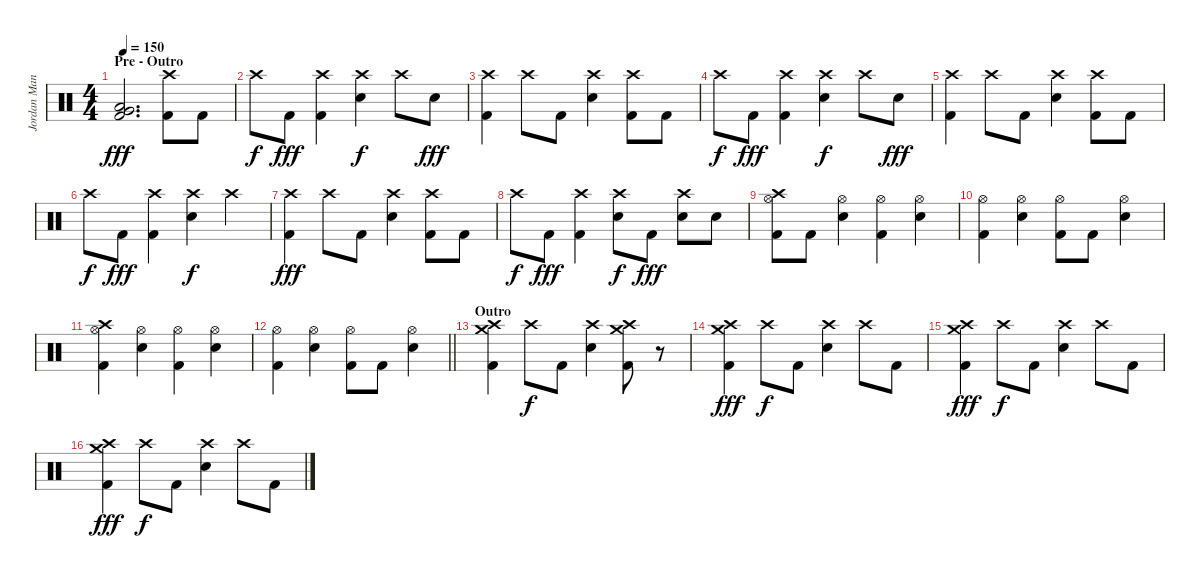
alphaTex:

\track ("Jordan Mancino" "Jordan Man") {instrument percussion}
\staff {score}
\articulation defaults
\ts (4 4)
\section ("" "Pre - Outro")
\tempo 150
\clef neutral
\ks c
("Very Low Tom (hit)" "Low Floor Tom (hit)" "Kick (hit) 2").2{d dy fff} ("Crash high (hit)" "Kick (hit) 2").8 "Kick (hit) 2".8 |
"Crash high (hit)".8{dy f} "Kick (hit) 2".8{dy fff} ("Crash high (hit)" "Kick (hit) 2").4 ("Crash high (hit)" "Electric Snare (hit)").4{dy f} "Crash high (hit)".8 "Electric Snare (hit)".8{dy fff} |
("Crash high (hit)" "Kick (hit) 2").4 "Crash high (hit)".8 "Kick (hit) 2".8 ("Crash high (hit)" "Electric Snare (hit)").4 ("Crash high (hit)" "Kick (hit) 2").8 "Kick (hit) 2".8 |
"Crash high (hit)".8{dy f} "Kick (hit) 2".8{dy fff} ("Crash high (hit)" "Kick (hit) 2").4 ("Crash high (hit)" "Electric Snare (hit)").4{dy f} "Crash high (hit)".8 "Electric Snare (hit)".8{dy fff} |
("Crash high (hit)" "Kick (hit) 2").4 "Crash high (hit)".8 "Kick (hit) 2".8 ("Crash high (hit)" "Electric Snare (hit)").4 ("Crash high (hit)" "Kick (hit) 2").8 "Kick (hit) 2".8 |
"Crash high (hit)".8{dy f} "Kick (hit) 2".8{dy fff} ("Crash high (hit)" "Kick (hit) 2").4 ("Crash high (hit)" "Electric Snare (hit)").4{dy f} "Crash high (hit)".4 |
("Crash high (hit)" "Kick (hit) 2").4{dy fff} "Crash high (hit)".8 "Kick (hit) 2".8 ("Crash high (hit)" "Electric Snare (hit)").4 ("Crash high (hit)" "Kick (hit) 2").8 "Kick (hit) 2".8 |
"Crash high (hit)".8{dy f} "Kick (hit) 2".8{dy fff} ("Crash high (hit)" "Kick (hit) 2").4 ("Crash high (hit)" "Electric Snare (hit)").8{dy f} "Kick (hit) 2".8{dy fff} ("Crash high (hit)" "Electric Snare (hit)").8 "Electric Snare (hit)".8 |
("Crash high (hit)" "Hi-Hat (open)" "Kick (hit) 2").8 "Kick (hit) 2".8 ("Hi-Hat (open)" "Electric Snare (hit)").4 ("Hi-Hat (open)" "Kick (hit) 2").4 ("Hi-Hat (open)" "Electric Snare (hit)").4 |
("Hi-Hat (open)" "Kick (hit) 2").4 ("Hi-Hat (open)" "Electric Snare (hit)").4 ("Hi-Hat (open)" "Kick (hit) 2").8 "Kick (hit) 2".8 ("Hi-Hat (open)" "Electric Snare (hit)").4 |
("Crash high (hit)" "Hi-Hat (open)" "Kick (hit) 2").4 ("Hi-Hat (open)" "Electric Snare (hit)").4 ("Hi-Hat (open)" "Kick (hit) 2").4 ("Hi-Hat (open)" "Electric Snare (hit)").4 |
\barLineRight lightlight
("Hi-Hat (open)" "Kick (hit) 2").4 ("Hi-Hat (open)" "Electric Snare (hit)").4 ("Hi-Hat (open)" "Kick (hit) 2").8 "Kick (hit) 2".8 ("Hi-Hat (open)" "Electric Snare (hit)").4 |
\section ("" "Outro")
("Crash high (hit)" "Crash medium (hit)" "Kick (hit) 2").4 "Crash high (hit)".8{dy f} "Kick (hit) 2".8 ("Crash high (hit)" "Electric Snare (hit)").4 ("Crash high (hit)" "Crash medium (hit)" "Kick (hit) 2").8 r.8{volume 0} |
("Crash high (hit)" "Crash medium (hit)" "Kick (hit) 2").4{dy fff volume 16} "Crash high (hit)".8{dy f} "Kick (hit) 2".8 ("Crash high (hit)" "Electric Snare (hit)").4 "Crash high (hit)".8 "Kick (hit) 2".8 |
("Crash high (hit)" "Crash medium (hit)" "Kick (hit) 2").4{dy fff} "Crash high (hit)".8{dy f} "Kick (hit) 2".8 ("Crash high (hit)" "Electric Snare (hit)").4 "Crash high (hit)".8 "Kick (hit) 2".8 |
("Crash high (hit)" "Crash medium (hit)" "Kick (hit) 2").4{dy fff} "Crash high (hit)".8{dy f} "Kick (hit) 2".8 ("Crash high (hit)" "Electric Snare (hit)").4 "Crash high (hit)".8 "Kick (hit) 2".8
